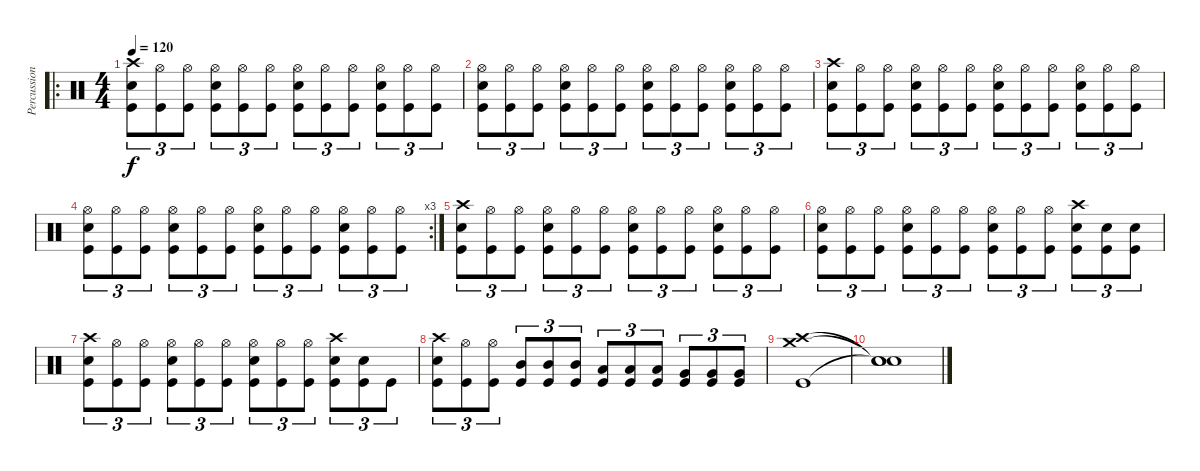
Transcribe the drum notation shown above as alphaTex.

\track ("Percussion" "Percussion") {instrument percussion}
\staff {score}
\articulation defaults
\ro
\ts (4 4)
\tempo 120
\clef neutral
\ks c
("Crash high (hit)" "Snare (hit) 2" "Kick (hit)").8{tu (3 2) dy f} ("Hi-Hat (open)" "Kick (hit)").8{tu (3 2)} ("Hi-Hat (open)" "Kick (hit)").8{tu (3 2)} ("Hi-Hat (open)" "Snare (hit) 2" "Kick (hit)").8{tu (3 2)} ("Hi-Hat (open)" "Kick (hit)").8{tu (3 2)} ("Hi-Hat (open)" "Kick (hit)").8{tu (3 2)} ("Hi-Hat (open)" "Snare (hit) 2" "Kick (hit)").8{tu (3 2)} ("Hi-Hat (open)" "Kick (hit)").8{tu (3 2)} ("Hi-Hat (open)" "Kick (hit)").8{tu (3 2)} ("Hi-Hat (open)" "Snare (hit) 2" "Kick (hit)").8{tu (3 2)} ("Hi-Hat (open)" "Kick (hit)").8{tu (3 2)} ("Hi-Hat (open)" "Kick (hit)").8{tu (3 2)} |
("Hi-Hat (open)" "Snare (hit) 2" "Kick (hit)").8{tu (3 2)} ("Hi-Hat (open)" "Kick (hit)").8{tu (3 2)} ("Hi-Hat (open)" "Kick (hit)").8{tu (3 2)} ("Hi-Hat (open)" "Snare (hit) 2" "Kick (hit)").8{tu (3 2)} ("Hi-Hat (open)" "Kick (hit)").8{tu (3 2)} ("Hi-Hat (open)" "Kick (hit)").8{tu (3 2)} ("Hi-Hat (open)" "Snare (hit) 2" "Kick (hit)").8{tu (3 2)} ("Hi-Hat (open)" "Kick (hit)").8{tu (3 2)} ("Hi-Hat (open)" "Kick (hit)").8{tu (3 2)} ("Hi-Hat (open)" "Snare (hit) 2" "Kick (hit)").8{tu (3 2)} ("Hi-Hat (open)" "Kick (hit)").8{tu (3 2)} ("Hi-Hat (open)" "Kick (hit)").8{tu (3 2)} |
("Crash high (hit)" "Snare (hit) 2" "Kick (hit)").8{tu (3 2)} ("Hi-Hat (open)" "Kick (hit)").8{tu (3 2)} ("Hi-Hat (open)" "Kick (hit)").8{tu (3 2)} ("Hi-Hat (open)" "Snare (hit) 2" "Kick (hit)").8{tu (3 2)} ("Hi-Hat (open)" "Kick (hit)").8{tu (3 2)} ("Hi-Hat (open)" "Kick (hit)").8{tu (3 2)} ("Hi-Hat (open)" "Snare (hit) 2" "Kick (hit)").8{tu (3 2)} ("Hi-Hat (open)" "Kick (hit)").8{tu (3 2)} ("Hi-Hat (open)" "Kick (hit)").8{tu (3 2)} ("Hi-Hat (open)" "Snare (hit) 2" "Kick (hit)").8{tu (3 2)} ("Hi-Hat (open)" "Kick (hit)").8{tu (3 2)} ("Hi-Hat (open)" "Kick (hit)").8{tu (3 2)} |
\rc 3
("Hi-Hat (open)" "Snare (hit) 2" "Kick (hit)").8{tu (3 2)} ("Hi-Hat (open)" "Kick (hit)").8{tu (3 2)} ("Hi-Hat (open)" "Kick (hit)").8{tu (3 2)} ("Hi-Hat (open)" "Snare (hit) 2" "Kick (hit)").8{tu (3 2)} ("Hi-Hat (open)" "Kick (hit)").8{tu (3 2)} ("Hi-Hat (open)" "Kick (hit)").8{tu (3 2)} ("Hi-Hat (open)" "Snare (hit) 2" "Kick (hit)").8{tu (3 2)} ("Hi-Hat (open)" "Kick (hit)").8{tu (3 2)} ("Hi-Hat (open)" "Kick (hit)").8{tu (3 2)} ("Hi-Hat (open)" "Snare (hit) 2" "Kick (hit)").8{tu (3 2)} ("Hi-Hat (open)" "Kick (hit)").8{tu (3 2)} ("Hi-Hat (open)" "Kick (hit)").8{tu (3 2)} |
("Crash high (hit)" "Snare (hit) 2" "Kick (hit)").8{tu (3 2)} ("Hi-Hat (open)" "Kick (hit)").8{tu (3 2)} ("Hi-Hat (open)" "Kick (hit)").8{tu (3 2)} ("Hi-Hat (open)" "Snare (hit) 2" "Kick (hit)").8{tu (3 2)} ("Hi-Hat (open)" "Kick (hit)").8{tu (3 2)} ("Hi-Hat (open)" "Kick (hit)").8{tu (3 2)} ("Hi-Hat (open)" "Snare (hit) 2" "Kick (hit)").8{tu (3 2)} ("Hi-Hat (open)" "Kick (hit)").8{tu (3 2)} ("Hi-Hat (open)" "Kick (hit)").8{tu (3 2)} ("Hi-Hat (open)" "Snare (hit) 2" "Kick (hit)").8{tu (3 2)} ("Hi-Hat (open)" "Kick (hit)").8{tu (3 2)} ("Hi-Hat (open)" "Kick (hit)").8{tu (3 2)} |
("Hi-Hat (open)" "Snare (hit) 2" "Kick (hit)").8{tu (3 2)} ("Hi-Hat (open)" "Kick (hit)").8{tu (3 2)} ("Hi-Hat (open)" "Kick (hit)").8{tu (3 2)} ("Hi-Hat (open)" "Snare (hit) 2" "Kick (hit)").8{tu (3 2)} ("Hi-Hat (open)" "Kick (hit)").8{tu (3 2)} ("Hi-Hat (open)" "Kick (hit)").8{tu (3 2)} ("Hi-Hat (open)" "Snare (hit) 2" "Kick (hit)").8{tu (3 2)} ("Hi-Hat (open)" "Kick (hit)").8{tu (3 2)} ("Hi-Hat (open)" "Kick (hit)").8{tu (3 2)} ("Crash high (hit)" "Snare (hit) 2" "Kick (hit)").8{tu (3 2)} ("Snare (hit) 2" "Kick (hit)").8{tu (3 2)} ("Snare (hit) 2" "Kick (hit)").8{tu (3 2)} |
("Crash high (hit)" "Snare (hit) 2" "Kick (hit)").8{tu (3 2)} ("Hi-Hat (open)" "Kick (hit)").8{tu (3 2)} ("Hi-Hat (open)" "Kick (hit)").8{tu (3 2)} ("Hi-Hat (open)" "Snare (hit) 2" "Kick (hit)").8{tu (3 2)} ("Hi-Hat (open)" "Kick (hit)").8{tu (3 2)} ("Hi-Hat (open)" "Kick (hit)").8{tu (3 2)} ("Hi-Hat (open)" "Snare (hit) 2" "Kick (hit)").8{tu (3 2)} ("Hi-Hat (open)" "Kick (hit)").8{tu (3 2)} ("Hi-Hat (open)" "Kick (hit)").8{tu (3 2)} ("Crash high (hit)" "Snare (hit) 2" "Kick (hit)").8{tu (3 2)} ("Snare (hit) 2" "Kick (hit)").8{tu (3 2)} "Kick (hit)".8{tu (3 2)} |
("Crash high (hit)" "Snare (hit) 2" "Kick (hit)").8{tu (3 2)} ("Hi-Hat (open)" "Kick (hit)").8{tu (3 2)} ("Hi-Hat (open)" "Kick (hit)").8{tu (3 2)} ("Mid Tom (hit)" "Kick (hit)").8{tu (3 2)} ("Mid Tom (hit)" "Kick (hit)").8{tu (3 2)} ("Mid Tom (hit)" "Kick (hit)").8{tu (3 2)} ("Low Tom (hit)" "Kick (hit)").8{tu (3 2)} ("Low Tom (hit)" "Kick (hit)").8{tu (3 2)} ("Low Tom (hit)" "Kick (hit)").8{tu (3 2)} ("Very Low Tom (hit)" "Kick (hit)").8{tu (3 2)} ("Very Low Tom (hit)" "Kick (hit)").8{tu (3 2)} ("Very Low Tom (hit)" "Kick (hit)").8{tu (3 2)} |
("Crash medium (hit)" "Crash high (hit)" "Kick (hit)").1 |
("Snare (hit)"{t} "Snare (hit)"{t} "Snare (hit)"{t}).1
